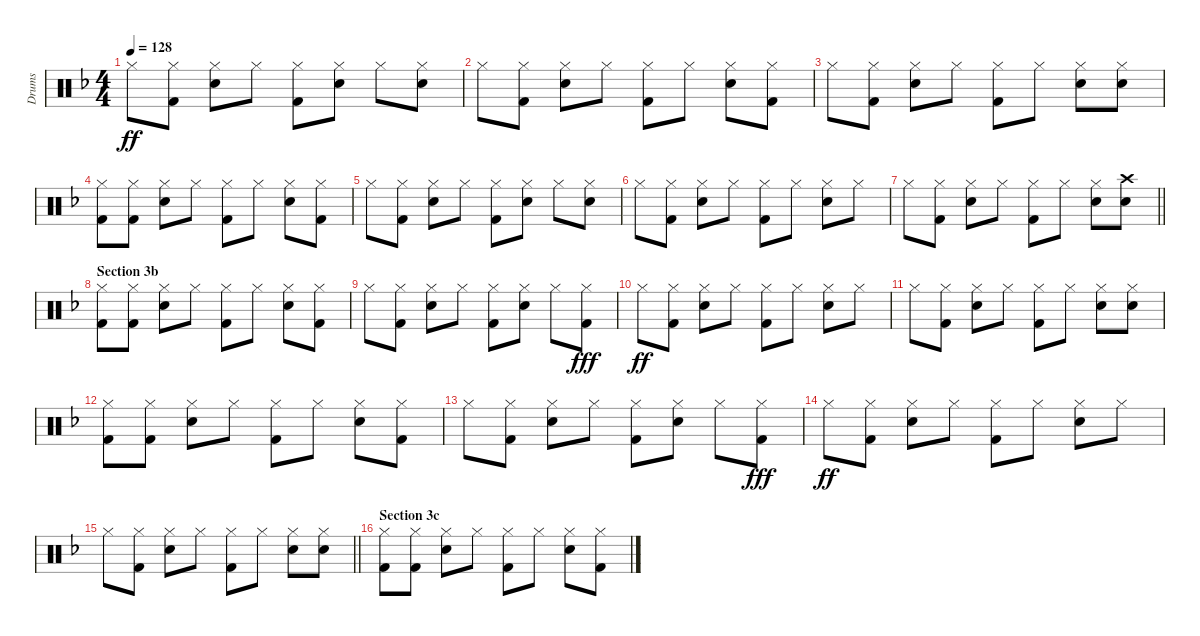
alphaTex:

\track ("Drums" "Drums") {instrument percussion}
\staff {score}
\articulation defaults
\ts (4 4)
\tempo 128
\clef neutral
\ks f "Hi-Hat (closed)".8{dy ff}
("Hi-Hat (closed)" "Kick (hit) 2").8 ("Hi-Hat (closed)" "Snare (hit) 2").8 "Hi-Hat (closed)".8 ("Hi-Hat (closed)" "Kick (hit) 2").8 ("Hi-Hat (closed)" "Snare (hit) 2").8 "Hi-Hat (closed)".8 ("Hi-Hat (closed)" "Snare (hit) 2").8 |
"Hi-Hat (closed)".8 ("Hi-Hat (closed)" "Kick (hit) 2").8 ("Hi-Hat (closed)" "Snare (hit) 2").8 "Hi-Hat (closed)".8 ("Hi-Hat (closed)" "Kick (hit) 2").8 "Hi-Hat (closed)".8 ("Hi-Hat (closed)" "Snare (hit) 2").8 ("Hi-Hat (closed)" "Kick (hit) 2").8 |
"Hi-Hat (closed)".8 ("Hi-Hat (closed)" "Kick (hit) 2").8 ("Hi-Hat (closed)" "Snare (hit) 2").8 "Hi-Hat (closed)".8 ("Hi-Hat (closed)" "Kick (hit) 2").8 "Hi-Hat (closed)".8 ("Hi-Hat (closed)" "Snare (hit) 2").8 ("Hi-Hat (closed)" "Snare (hit) 2").8 |
("Hi-Hat (closed)" "Kick (hit) 2").8 ("Hi-Hat (closed)" "Kick (hit) 2").8 ("Hi-Hat (closed)" "Snare (hit) 2").8 "Hi-Hat (closed)".8 ("Hi-Hat (closed)" "Kick (hit) 2").8 "Hi-Hat (closed)".8 ("Hi-Hat (closed)" "Snare (hit) 2").8 ("Hi-Hat (closed)" "Kick (hit) 2").8 |
"Hi-Hat (closed)".8 ("Hi-Hat (closed)" "Kick (hit) 2").8 ("Hi-Hat (closed)" "Snare (hit) 2").8 "Hi-Hat (closed)".8 ("Hi-Hat (closed)" "Kick (hit) 2").8 ("Hi-Hat (closed)" "Snare (hit) 2").8 "Hi-Hat (closed)".8 ("Hi-Hat (closed)" "Snare (hit) 2").8 |
"Hi-Hat (closed)".8 ("Hi-Hat (closed)" "Kick (hit) 2").8 ("Hi-Hat (closed)" "Snare (hit) 2").8 "Hi-Hat (closed)".8 ("Hi-Hat (closed)" "Kick (hit) 2").8 "Hi-Hat (closed)".8 ("Hi-Hat (closed)" "Snare (hit) 2").8 "Hi-Hat (closed)".8 |
\barLineRight lightlight "Hi-Hat (closed)".8
("Hi-Hat (closed)" "Kick (hit) 2").8 ("Hi-Hat (closed)" "Snare (hit) 2").8 "Hi-Hat (closed)".8 ("Hi-Hat (closed)" "Kick (hit) 2").8 "Hi-Hat (closed)".8 ("Hi-Hat (closed)" "Snare (hit) 2").8 ("Crash high (hit)" "Snare (hit) 2").8 |
\section ("" "Section 3b")
("Hi-Hat (closed)" "Kick (hit) 2").8 ("Hi-Hat (closed)" "Kick (hit) 2").8 ("Hi-Hat (closed)" "Snare (hit) 2").8 "Hi-Hat (closed)".8 ("Hi-Hat (closed)" "Kick (hit) 2").8 "Hi-Hat (closed)".8 ("Hi-Hat (closed)" "Snare (hit) 2").8 ("Hi-Hat (closed)" "Kick (hit) 2").8 |
"Hi-Hat (closed)".8 ("Hi-Hat (closed)" "Kick (hit) 2").8 ("Hi-Hat (closed)" "Snare (hit) 2").8 "Hi-Hat (closed)".8 ("Hi-Hat (closed)" "Kick (hit) 2").8 ("Hi-Hat (closed)" "Snare (hit) 2").8 "Hi-Hat (closed)".8 ("Hi-Hat (closed)" "Kick (hit) 2").8{dy fff} |
"Hi-Hat (closed)".8{dy ff} ("Hi-Hat (closed)" "Kick (hit) 2").8 ("Hi-Hat (closed)" "Snare (hit) 2").8 "Hi-Hat (closed)".8 ("Hi-Hat (closed)" "Kick (hit) 2").8 "Hi-Hat (closed)".8 ("Hi-Hat (closed)" "Snare (hit) 2").8 "Hi-Hat (closed)".8 |
"Hi-Hat (closed)".8 ("Hi-Hat (closed)" "Kick (hit) 2").8 ("Hi-Hat (closed)" "Snare (hit) 2").8 "Hi-Hat (closed)".8 ("Hi-Hat (closed)" "Kick (hit) 2").8 "Hi-Hat (closed)".8 ("Hi-Hat (closed)" "Snare (hit) 2").8 ("Hi-Hat (closed)" "Snare (hit) 2").8 |
("Hi-Hat (closed)" "Kick (hit) 2").8 ("Hi-Hat (closed)" "Kick (hit) 2").8 ("Hi-Hat (closed)" "Snare (hit) 2").8 "Hi-Hat (closed)".8 ("Hi-Hat (closed)" "Kick (hit) 2").8 "Hi-Hat (closed)".8 ("Hi-Hat (closed)" "Snare (hit) 2").8 ("Hi-Hat (closed)" "Kick (hit) 2").8 |
"Hi-Hat (closed)".8 ("Hi-Hat (closed)" "Kick (hit) 2").8 ("Hi-Hat (closed)" "Snare (hit) 2").8 "Hi-Hat (closed)".8 ("Hi-Hat (closed)" "Kick (hit) 2").8 ("Hi-Hat (closed)" "Snare (hit) 2").8 "Hi-Hat (closed)".8 ("Hi-Hat (closed)" "Kick (hit) 2").8{dy fff} |
"Hi-Hat (closed)".8{dy ff} ("Hi-Hat (closed)" "Kick (hit) 2").8 ("Hi-Hat (closed)" "Snare (hit) 2").8 "Hi-Hat (closed)".8 ("Hi-Hat (closed)" "Kick (hit) 2").8 "Hi-Hat (closed)".8 ("Hi-Hat (closed)" "Snare (hit) 2").8 "Hi-Hat (closed)".8 |
\barLineRight lightlight "Hi-Hat (closed)".8
("Hi-Hat (closed)" "Kick (hit) 2").8 ("Hi-Hat (closed)" "Snare (hit) 2").8 "Hi-Hat (closed)".8 ("Hi-Hat (closed)" "Kick (hit) 2").8 "Hi-Hat (closed)".8 ("Hi-Hat (closed)" "Snare (hit) 2").8 ("Hi-Hat (closed)" "Snare (hit) 2").8 |
\section ("" "Section 3c")
("Hi-Hat (closed)" "Kick (hit) 2").8 ("Hi-Hat (closed)" "Kick (hit) 2").8 ("Hi-Hat (closed)" "Snare (hit) 2").8 "Hi-Hat (closed)".8 ("Hi-Hat (closed)" "Kick (hit) 2").8 "Hi-Hat (closed)".8 ("Hi-Hat (closed)" "Snare (hit) 2").8 ("Hi-Hat (closed)" "Kick (hit) 2").8
